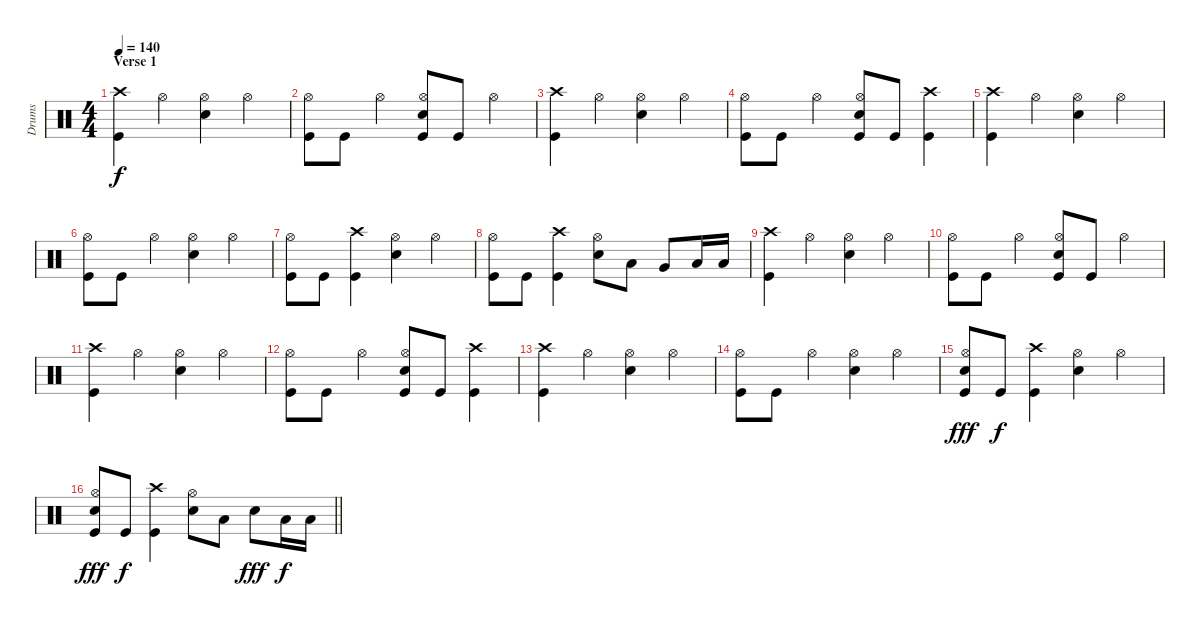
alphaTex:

\track ("Drums" "Drums") {instrument percussion}
\staff {score}
\articulation defaults
\ts (4 4)
\section ("" "Verse 1")
\tempo 140
\clef neutral
\ks c
("Crash high (hit)" "Kick (hit)").4{dy f} "Hi-Hat (open)".4 ("Hi-Hat (open)" "Snare (hit) 2").4 "Hi-Hat (open)".4 |
("Hi-Hat (open)" "Kick (hit)").8 "Kick (hit)".8 "Hi-Hat (open)".4 ("Snare (hit) 2" "Kick (hit)" "Hi-Hat (open)").8 "Kick (hit)".8 "Hi-Hat (open)".4 |
("Crash high (hit)" "Kick (hit)").4 "Hi-Hat (open)".4 ("Hi-Hat (open)" "Snare (hit) 2").4 "Hi-Hat (open)".4 |
("Hi-Hat (open)" "Kick (hit)").8 "Kick (hit)".8 "Hi-Hat (open)".4 ("Snare (hit) 2" "Kick (hit)" "Hi-Hat (open)").8 "Kick (hit)".8 ("Crash high (hit)" "Kick (hit)").4 |
("Crash high (hit)" "Kick (hit)").4 "Hi-Hat (open)".4 ("Hi-Hat (open)" "Snare (hit) 2").4 "Hi-Hat (open)".4 |
("Hi-Hat (open)" "Kick (hit)").8 "Kick (hit)".8 "Hi-Hat (open)".4 ("Snare (hit) 2" "Hi-Hat (open)").4 "Hi-Hat (open)".4 |
("Kick (hit)" "Hi-Hat (open)").8 "Kick (hit)".8 ("Kick (hit)" "Crash high (hit)").4 ("Snare (hit) 2" "Hi-Hat (open)").4 "Hi-Hat (open)".4 |
("Kick (hit)" "Hi-Hat (open)").8 "Kick (hit)".8 ("Kick (hit)" "Crash high (hit)").4 ("Snare (hit) 2" "Hi-Hat (open)").8 "Low Tom (hit)".8 "Very Low Tom (hit)".8 "Low Floor Tom (hit)".16 "Low Floor Tom (hit)".16 |
("Crash high (hit)" "Kick (hit)").4 "Hi-Hat (open)".4 ("Hi-Hat (open)" "Snare (hit) 2").4 "Hi-Hat (open)".4 |
("Hi-Hat (open)" "Kick (hit)").8 "Kick (hit)".8 "Hi-Hat (open)".4 ("Snare (hit) 2" "Kick (hit)" "Hi-Hat (open)").8 "Kick (hit)".8 "Hi-Hat (open)".4 |
("Crash high (hit)" "Kick (hit)").4 "Hi-Hat (open)".4 ("Hi-Hat (open)" "Snare (hit) 2").4 "Hi-Hat (open)".4 |
("Hi-Hat (open)" "Kick (hit)").8 "Kick (hit)".8 "Hi-Hat (open)".4 ("Snare (hit) 2" "Kick (hit)" "Hi-Hat (open)").8 "Kick (hit)".8 ("Crash high (hit)" "Kick (hit)").4 |
("Crash high (hit)" "Kick (hit)").4 "Hi-Hat (open)".4 ("Hi-Hat (open)" "Snare (hit) 2").4 "Hi-Hat (open)".4 |
("Hi-Hat (open)" "Kick (hit)").8 "Kick (hit)".8 "Hi-Hat (open)".4 ("Snare (hit) 2" "Hi-Hat (open)").4 "Hi-Hat (open)".4 |
("Kick (hit)" "Hi-Hat (open)" "Snare (hit) 2").8{dy fff} "Kick (hit)".8{dy f} ("Kick (hit)" "Crash high (hit)").4 ("Snare (hit) 2" "Hi-Hat (open)").4 "Hi-Hat (open)".4 |
\barLineRight lightlight
("Kick (hit)" "Hi-Hat (open)" "Snare (hit) 2").8{dy fff} "Kick (hit)".8{dy f} ("Kick (hit)" "Crash high (hit)").4 ("Snare (hit) 2" "Hi-Hat (open)").8 "Low Tom (hit)".8 "Snare (hit) 2".8{dy fff} "Low Floor Tom (hit)".16{dy f} "Low Floor Tom (hit)".16
